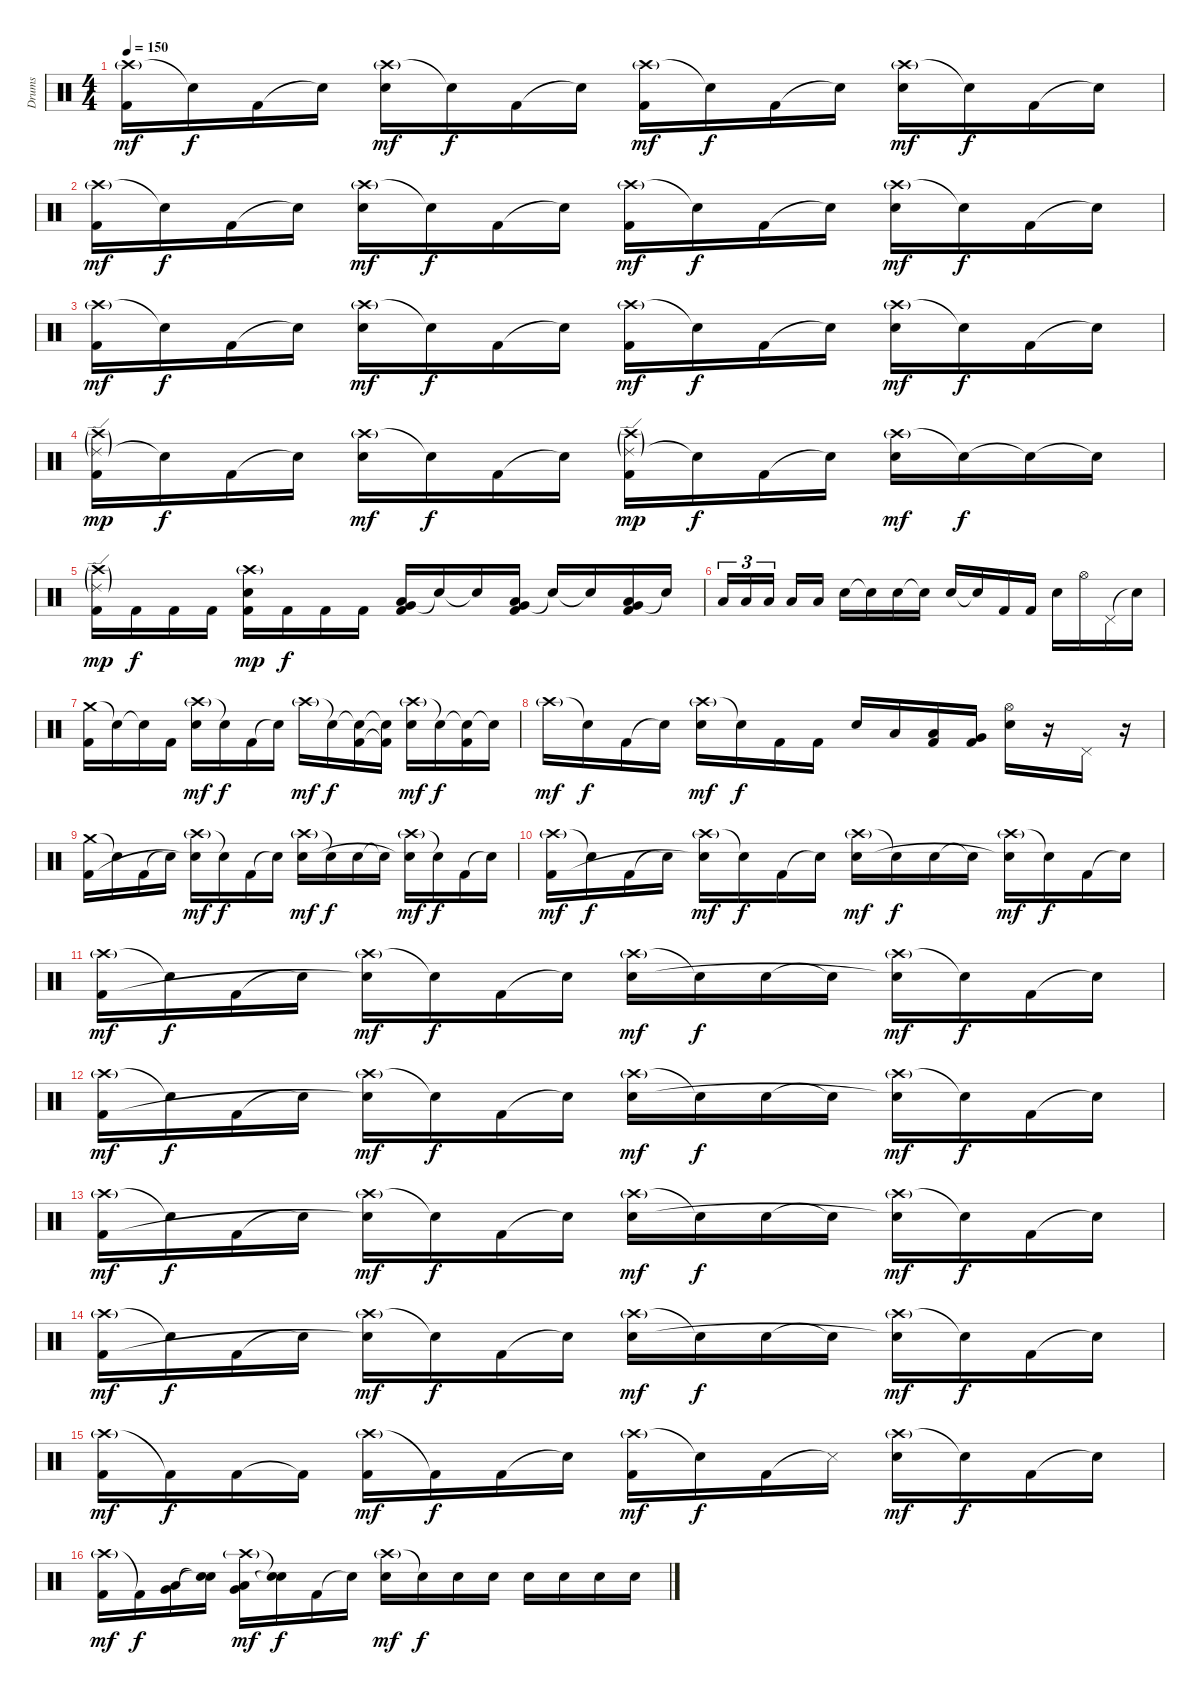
\track ("Drums" "Drums") {instrument percussion}
\staff {score}
\articulation defaults
\ts (4 4)
\tempo 150
\clef neutral
\ks c
("Crash high (hit)"{g} "Kick (hit) 2").16{dy mf} "Snare (hit)"{t}.16{dy f} "Kick (hit) 2".16 "Snare (hit)"{t}.16 ("Crash high (hit)"{g} "Electric Snare (hit)").16{dy mf} "Snare (hit)"{t}.16{dy f} "Kick (hit) 2".16 "Snare (hit)"{t}.16 ("Crash high (hit)"{g} "Kick (hit) 2").16{dy mf} "Snare (hit)"{t}.16{dy f} "Kick (hit) 2".16 "Snare (hit)"{t}.16 ("Crash high (hit)"{g} "Electric Snare (hit)").16{dy mf} "Snare (hit)"{t}.16{dy f} "Kick (hit) 2".16 "Snare (hit)"{t}.16 |
("Crash high (hit)"{g} "Kick (hit) 2").16{dy mf} "Snare (hit)"{t}.16{dy f} "Kick (hit) 2".16 "Snare (hit)"{t}.16 ("Crash high (hit)"{g} "Electric Snare (hit)").16{dy mf} "Snare (hit)"{t}.16{dy f} "Kick (hit) 2".16 "Snare (hit)"{t}.16 ("Crash high (hit)"{g} "Kick (hit) 2").16{dy mf} "Snare (hit)"{t}.16{dy f} "Kick (hit) 2".16 "Snare (hit)"{t}.16 ("Crash high (hit)"{g} "Electric Snare (hit)").16{dy mf} "Snare (hit)"{t}.16{dy f} "Kick (hit) 2".16 "Snare (hit)"{t}.16 |
("Crash high (hit)"{g} "Kick (hit) 2").16{dy mf} "Snare (hit)"{t}.16{dy f} "Kick (hit) 2".16 "Snare (hit)"{t}.16 ("Crash high (hit)"{g} "Electric Snare (hit)").16{dy mf} "Snare (hit)"{t}.16{dy f} "Kick (hit) 2".16 "Snare (hit)"{t}.16 ("Crash high (hit)"{g} "Kick (hit) 2").16{dy mf} "Snare (hit)"{t}.16{dy f} "Kick (hit) 2".16 "Snare (hit)"{t}.16 ("Crash high (hit)"{g} "Electric Snare (hit)").16{dy mf} "Snare (hit)"{t}.16{dy f} "Kick (hit) 2".16 "Snare (hit)"{t}.16 |
("Ride (edge) 2"{g} "Crash high (hit)"{g} "Kick (hit) 2").16{dy mp} "Snare (hit)"{t}.16{dy f} "Kick (hit) 2".16 "Snare (hit)"{t}.16 ("Crash high (hit)"{g} "Electric Snare (hit)").16{dy mf} "Snare (hit)"{t}.16{dy f} "Kick (hit) 2".16 "Snare (hit)"{t}.16 ("Ride (edge) 2"{g} "Crash high (hit)"{g} "Kick (hit) 2").16{dy mp} "Snare (hit)"{t}.16{dy f} "Kick (hit) 2".16 "Snare (hit)"{t}.16 ("Crash high (hit)"{g} "Electric Snare (hit)").16{dy mf} "Snare (hit)"{t}.16{dy f} "Snare (hit)"{t}.16 "Snare (hit)"{t}.16 |
("Ride (edge) 2"{g} "Crash high (hit)"{g} "Kick (hit) 2").16{dy mp} "Kick (hit) 2".16{dy f} "Kick (hit) 2".16 "Kick (hit) 2".16 ("Crash high (hit)"{g} "Electric Snare (hit)" "Kick (hit) 2").16{dy mp} "Kick (hit) 2".16{dy f} "Kick (hit) 2".16 "Kick (hit) 2".16 ("Very Low Tom (hit)" "Low Tom (hit)" "Kick (hit) 2").16 "Snare (hit)"{t}.16 "Snare (hit)"{t}.16 ("Very Low Tom (hit)" "Low Tom (hit)" "Kick (hit) 2").16 "Snare (hit)"{t}.16 "Snare (hit)"{t}.16 ("Very Low Tom (hit)" "Low Tom (hit)" "Kick (hit) 2").16 "Snare (hit)"{t}.16 |
"Low Tom (hit)".16{tu (3 2)} "Low Tom (hit)".16{tu (3 2)} "Low Tom (hit)".16{tu (3 2) beam splitsecondary} "Low Tom (hit)".16 "Low Tom (hit)".16 "Electric Snare (hit)".16 "Snare (hit)"{t}.16 "Electric Snare (hit)".16 "Snare (hit)"{t}.16 "Electric Snare (hit)".16 "Snare (hit)"{t}.16 "Kick (hit) 2".16 "Kick (hit) 2".16 "Electric Snare (hit)".16 "Hi-Hat (open)".16 "Pedal Hi-Hat (hit)".16 "Snare (hit)"{t}.16 |
("Crash medium (hit)" "Kick (hit) 2").16 "Snare (hit)"{t}.16 "Snare (hit)"{t}.16 "Kick (hit) 2".16 ("Crash high (hit)"{g} "Electric Snare (hit)").16{dy mf} "Snare (hit)"{t}.16{dy f} "Kick (hit) 2".16 "Snare (hit)"{t}.16 "Crash high (hit)"{g}.16{dy mf} "Snare (hit)"{t}.16{dy f} ("Snare (hit)"{t} "Kick (hit) 2").16 ("Snare (hit)"{t} "Kick (hit) 2"{t}).16 ("Crash high (hit)"{g} "Electric Snare (hit)").16{dy mf} "Snare (hit)"{t}.16{dy f} ("Snare (hit)"{t} "Kick (hit) 2").16 "Snare (hit)"{t}.16 |
"Crash high (hit)"{g}.16{dy mf} "Snare (hit)"{t}.16{dy f} "Kick (hit) 2".16 "Snare (hit)"{t}.16 ("Crash high (hit)"{g} "Electric Snare (hit)").16{dy mf} "Snare (hit)"{t}.16{dy f} "Kick (hit) 2".16 "Kick (hit) 2".16 "Electric Snare (hit)".16 "Low Tom (hit)".16 ("Low Tom (hit)" "Kick (hit) 2").16 ("Very Low Tom (hit)" "Kick (hit) 2").16 ("Hi-Hat (open)" "Electric Snare (hit)").16 r.16 "Pedal Hi-Hat (hit)".16 r.16 |
("Crash medium (hit)" "Kick (hit) 2").16 "Snare (hit)"{t}.16 "Kick (hit) 2".16 "Snare (hit)"{t}.16 ("Crash high (hit)"{g} "Snare (hit)"{t}).16{dy mf} "Snare (hit)"{t}.16{dy f} "Kick (hit) 2".16 "Snare (hit)"{t}.16 ("Crash high (hit)"{g} "Electric Snare (hit)").16{dy mf} "Snare (hit)"{t}.16{dy f} "Electric Snare (hit)".16 "Snare (hit)"{t}.16 ("Crash high (hit)"{g} "Snare (hit)"{t}).16{dy mf} "Snare (hit)"{t}.16{dy f} "Kick (hit) 2".16 "Snare (hit)"{t}.16 |
("Crash high (hit)"{g} "Kick (hit) 2").16{dy mf} "Snare (hit)"{t}.16{dy f} "Kick (hit) 2".16 "Snare (hit)"{t}.16 ("Crash high (hit)"{g} "Snare (hit)"{t}).16{dy mf} "Snare (hit)"{t}.16{dy f} "Kick (hit) 2".16 "Snare (hit)"{t}.16 ("Crash high (hit)"{g} "Electric Snare (hit)").16{dy mf} "Snare (hit)"{t}.16{dy f} "Electric Snare (hit)".16 "Snare (hit)"{t}.16 ("Crash high (hit)"{g} "Snare (hit)"{t}).16{dy mf} "Snare (hit)"{t}.16{dy f} "Kick (hit) 2".16 "Snare (hit)"{t}.16 |
("Crash high (hit)"{g} "Kick (hit) 2").16{dy mf} "Snare (hit)"{t}.16{dy f} "Kick (hit) 2".16 "Snare (hit)"{t}.16 ("Crash high (hit)"{g} "Snare (hit)"{t}).16{dy mf} "Snare (hit)"{t}.16{dy f} "Kick (hit) 2".16 "Snare (hit)"{t}.16 ("Crash high (hit)"{g} "Electric Snare (hit)").16{dy mf} "Snare (hit)"{t}.16{dy f} "Electric Snare (hit)".16 "Snare (hit)"{t}.16 ("Crash high (hit)"{g} "Snare (hit)"{t}).16{dy mf} "Snare (hit)"{t}.16{dy f} "Kick (hit) 2".16 "Snare (hit)"{t}.16 |
("Crash high (hit)"{g} "Kick (hit) 2").16{dy mf} "Snare (hit)"{t}.16{dy f} "Kick (hit) 2".16 "Snare (hit)"{t}.16 ("Crash high (hit)"{g} "Snare (hit)"{t}).16{dy mf} "Snare (hit)"{t}.16{dy f} "Kick (hit) 2".16 "Snare (hit)"{t}.16 ("Crash high (hit)"{g} "Electric Snare (hit)").16{dy mf} "Snare (hit)"{t}.16{dy f} "Electric Snare (hit)".16 "Snare (hit)"{t}.16 ("Crash high (hit)"{g} "Snare (hit)"{t}).16{dy mf} "Snare (hit)"{t}.16{dy f} "Kick (hit) 2".16 "Snare (hit)"{t}.16 |
("Crash high (hit)"{g} "Kick (hit) 2").16{dy mf} "Snare (hit)"{t}.16{dy f} "Kick (hit) 2".16 "Snare (hit)"{t}.16 ("Crash high (hit)"{g} "Snare (hit)"{t}).16{dy mf} "Snare (hit)"{t}.16{dy f} "Kick (hit) 2".16 "Snare (hit)"{t}.16 ("Crash high (hit)"{g} "Electric Snare (hit)").16{dy mf} "Snare (hit)"{t}.16{dy f} "Electric Snare (hit)".16 "Snare (hit)"{t}.16 ("Crash high (hit)"{g} "Snare (hit)"{t}).16{dy mf} "Snare (hit)"{t}.16{dy f} "Kick (hit) 2".16 "Snare (hit)"{t}.16 |
("Crash high (hit)"{g} "Kick (hit) 2").16{dy mf} "Snare (hit)"{t}.16{dy f} "Kick (hit) 2".16 "Snare (hit)"{t}.16 ("Crash high (hit)"{g} "Snare (hit)"{t}).16{dy mf} "Snare (hit)"{t}.16{dy f} "Kick (hit) 2".16 "Snare (hit)"{t}.16 ("Crash high (hit)"{g} "Electric Snare (hit)").16{dy mf} "Snare (hit)"{t}.16{dy f} "Electric Snare (hit)".16 "Snare (hit)"{t}.16 ("Crash high (hit)"{g} "Snare (hit)"{t}).16{dy mf} "Snare (hit)"{t}.16{dy f} "Kick (hit) 2".16 "Snare (hit)"{t}.16 |
("Crash high (hit)"{g} "Kick (hit) 2").16{dy mf} "Kick (hit) 2"{t}.16{dy f} "Kick (hit) 2".16 "Kick (hit) 2"{t}.16 ("Crash high (hit)"{g} "Kick (hit) 2").16{dy mf} "Kick (hit) 2"{t}.16{dy f} "Kick (hit) 2".16 "Snare (hit)"{t}.16 ("Crash high (hit)"{g} "Kick (hit) 2").16{dy mf} "Snare (hit)"{t}.16{dy f} "Kick (hit) 2".16 "Snare (side stick) 3"{t}.16 ("Crash high (hit)"{g} "Electric Snare (hit)").16{dy mf} "Snare (hit)"{t}.16{dy f} "Kick (hit) 2".16 "Snare (hit)"{t}.16 |
("Crash high (hit)"{g} "Kick (hit) 2").16{dy mf} "Kick (hit) 2"{t}.16{dy f} ("Low Tom (hit)" "Very Low Tom (hit)").16 ("Snare (hit)"{t} "Snare (hit)"{t}).16 ("Crash high (hit)"{g} "Low Tom (hit)" "Very Low Tom (hit)").16{dy mf} ("Snare (hit)"{t} "Snare (hit)"{t}).16{dy f} "Kick (hit) 2".16 "Snare (hit)"{t}.16 ("Crash high (hit)"{g} "Electric Snare (hit)").16{dy mf} "Snare (hit)"{t}.16{dy f} "Electric Snare (hit)".16 "Electric Snare (hit)".16 "Electric Snare (hit)".16 "Electric Snare (hit)".16 "Electric Snare (hit)".16 "Electric Snare (hit)".16
